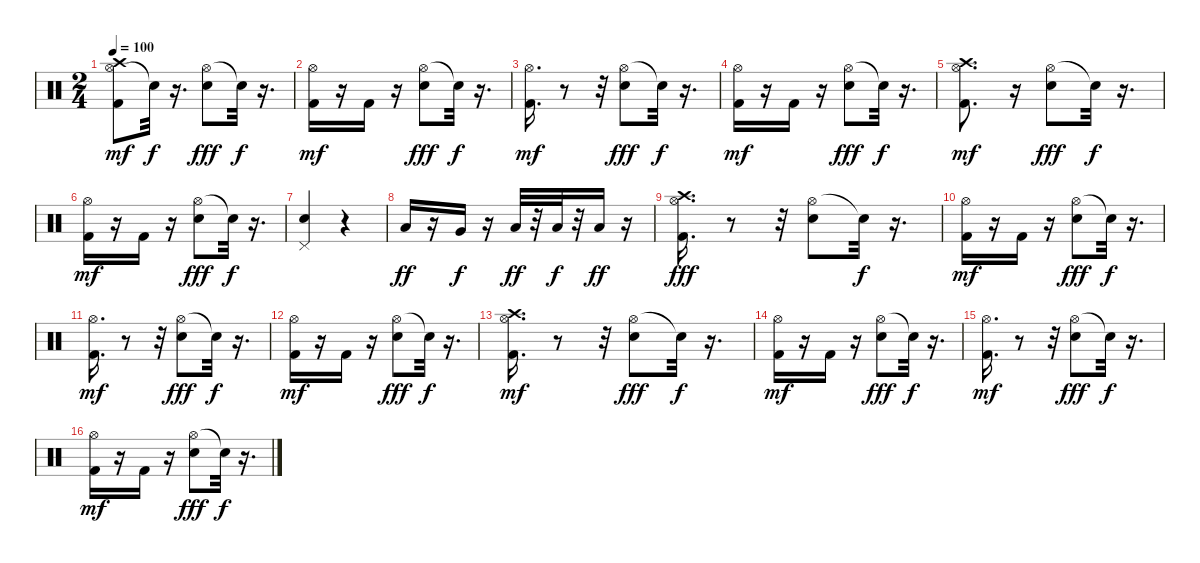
\track "" {instrument percussion}
\staff {score}
\articulation defaults
\ts (2 4)
\tempo 100
\clef neutral
\ks c
("Hi-Hat (open)" "Crash high (hit)" "Kick (hit) 2").8{dy mf} "Snare (hit)"{t}.32{dy f} r.16{d} ("Hi-Hat (open)" "Snare (hit) 2").8{dy fff} "Snare (hit)"{t}.32{dy f} r.16{d} |
("Hi-Hat (open)" "Kick (hit) 2").16{dy mf} r.16 "Kick (hit) 2".16 r.16 ("Hi-Hat (open)" "Snare (hit) 2").8{dy fff} "Snare (hit)"{t}.32{dy f} r.16{d} |
("Hi-Hat (open)" "Kick (hit) 2").16{d dy mf} r.8 r.32 ("Hi-Hat (open)" "Snare (hit) 2").8{dy fff} "Snare (hit)"{t}.32{dy f} r.16{d} |
("Hi-Hat (open)" "Kick (hit) 2").16{dy mf} r.16 "Kick (hit) 2".16 r.16 ("Hi-Hat (open)" "Snare (hit) 2").8{dy fff} "Snare (hit)"{t}.32{dy f} r.16{d} |
("Hi-Hat (open)" "Crash high (hit)" "Kick (hit) 2").8{d dy mf} r.16 ("Hi-Hat (open)" "Snare (hit) 2").8{dy fff} "Snare (hit)"{t}.32{dy f} r.16{d} |
("Hi-Hat (open)" "Kick (hit) 2").16{dy mf} r.16 "Kick (hit) 2".16 r.16 ("Hi-Hat (open)" "Snare (hit) 2").8{dy fff} "Snare (hit)"{t}.32{dy f} r.16{d} |
("Pedal Hi-Hat (hit)" "Snare (hit) 2").4 r.4 |
"Low Floor Tom (hit)".16{dy ff} r.16 "Very Low Tom (hit)".16{dy f} r.16 "Low Tom (hit)".32{dy ff} r.32 "Low Tom (hit)".32{dy f} r.32 "Low Tom (hit)".16{dy ff} r.16 |
("Hi-Hat (open)" "Kick (hit) 2" "Crash high (hit)").16{d dy fff} r.8 r.32 ("Hi-Hat (open)" "Snare (hit) 2").8 "Snare (hit)"{t}.32{dy f} r.16{d} |
("Hi-Hat (open)" "Kick (hit) 2").16{dy mf} r.16 "Kick (hit) 2".16 r.16 ("Hi-Hat (open)" "Snare (hit) 2").8{dy fff} "Snare (hit)"{t}.32{dy f} r.16{d} |
("Hi-Hat (open)" "Kick (hit) 2").16{d dy mf} r.8 r.32 ("Hi-Hat (open)" "Snare (hit) 2").8{dy fff} "Snare (hit)"{t}.32{dy f} r.16{d} |
("Hi-Hat (open)" "Kick (hit) 2").16{dy mf} r.16 "Kick (hit) 2".16 r.16 ("Hi-Hat (open)" "Snare (hit) 2").8{dy fff} "Snare (hit)"{t}.32{dy f} r.16{d} |
("Hi-Hat (open)" "Crash high (hit)" "Kick (hit) 2").16{d dy mf} r.8 r.32 ("Hi-Hat (open)" "Snare (hit) 2").8{dy fff} "Snare (hit)"{t}.32{dy f} r.16{d} |
("Hi-Hat (open)" "Kick (hit) 2").16{dy mf} r.16 "Kick (hit) 2".16 r.16 ("Hi-Hat (open)" "Snare (hit) 2").8{dy fff} "Snare (hit)"{t}.32{dy f} r.16{d} |
("Hi-Hat (open)" "Kick (hit) 2").16{d dy mf} r.8 r.32 ("Hi-Hat (open)" "Snare (hit) 2").8{dy fff} "Snare (hit)"{t}.32{dy f} r.16{d} |
("Hi-Hat (open)" "Kick (hit) 2").16{dy mf} r.16 "Kick (hit) 2".16 r.16 ("Hi-Hat (open)" "Snare (hit) 2").8{dy fff} "Snare (hit)"{t}.32{dy f} r.16{d}
